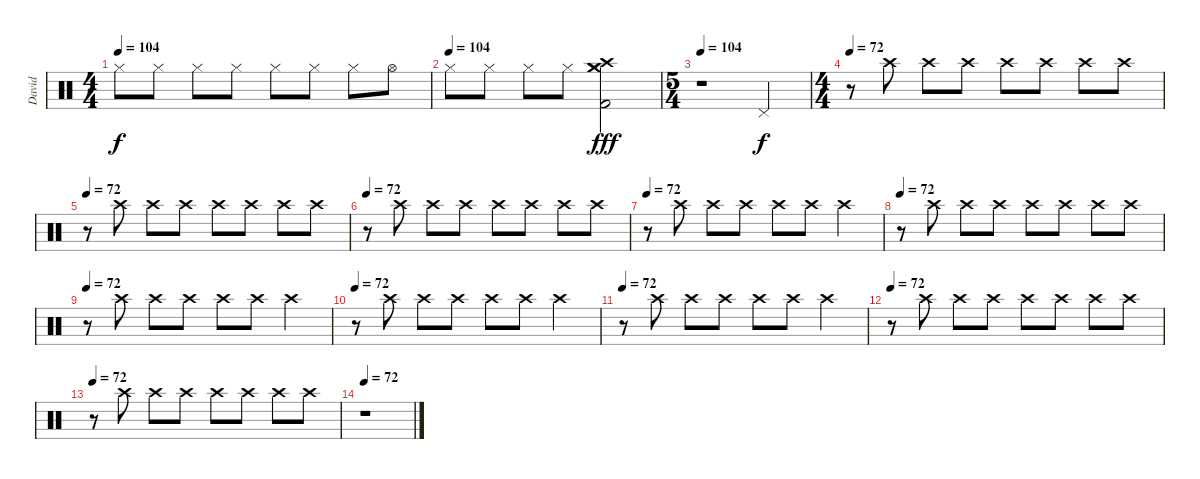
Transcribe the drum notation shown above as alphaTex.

\track ("David" "David") {instrument percussion}
\staff {score}
\articulation defaults
\ts (4 4)
\tempo 104
\clef neutral
\ks c "Hi-Hat (closed)".8{dy f} "Hi-Hat (closed)".8 "Hi-Hat (closed)".8 "Hi-Hat (closed)".8 "Hi-Hat (closed)".8 "Hi-Hat (closed)".8 "Hi-Hat (closed)".8 "Hi-Hat (open)".8
|
\tempo (104)
"Hi-Hat (closed)".8 "Hi-Hat (closed)".8 "Hi-Hat (closed)".8 "Hi-Hat (closed)".8 ("Crash medium (hit)" "Crash high (hit)" "Crash medium (hit)" "Kick (hit) 2").2{dy fff} |
\ts (5 4)
\tempo 104
r.1 "Pedal Hi-Hat (hit)".4{dy f} |
\ts (4 4)
\tempo 72
r.8 "Crash high (hit)".8 "Crash high (hit)".8 "Crash high (hit)".8 "Crash high (hit)".8 "Crash high (hit)".8 "Crash high (hit)".8 "Crash high (hit)".8 |
\tempo 72
r.8 "Crash high (hit)".8 "Crash high (hit)".8 "Crash high (hit)".8 "Crash high (hit)".8 "Crash high (hit)".8 "Crash high (hit)".8 "Crash high (hit)".8 |
\tempo 72
r.8 "Crash high (hit)".8 "Crash high (hit)".8 "Crash high (hit)".8 "Crash high (hit)".8 "Crash high (hit)".8 "Crash high (hit)".8 "Crash high (hit)".8 |
\tempo 72
r.8 "Crash high (hit)".8 "Crash high (hit)".8 "Crash high (hit)".8 "Crash high (hit)".8 "Crash high (hit)".8 "Crash high (hit)".4 |
\tempo 72
r.8 "Crash high (hit)".8 "Crash high (hit)".8 "Crash high (hit)".8 "Crash high (hit)".8 "Crash high (hit)".8 "Crash high (hit)".8 "Crash high (hit)".8 |
\tempo 72
r.8 "Crash high (hit)".8 "Crash high (hit)".8 "Crash high (hit)".8 "Crash high (hit)".8 "Crash high (hit)".8 "Crash high (hit)".4 |
\tempo 72
r.8 "Crash high (hit)".8 "Crash high (hit)".8 "Crash high (hit)".8 "Crash high (hit)".8 "Crash high (hit)".8 "Crash high (hit)".4 |
\tempo 72
r.8 "Crash high (hit)".8 "Crash high (hit)".8 "Crash high (hit)".8 "Crash high (hit)".8 "Crash high (hit)".8 "Crash high (hit)".4 |
\tempo 72
r.8 "Crash high (hit)".8 "Crash high (hit)".8 "Crash high (hit)".8 "Crash high (hit)".8 "Crash high (hit)".8 "Crash high (hit)".8 "Crash high (hit)".8 |
\tempo 72
r.8 "Crash high (hit)".8 "Crash high (hit)".8 "Crash high (hit)".8 "Crash high (hit)".8 "Crash high (hit)".8 "Crash high (hit)".8 "Crash high (hit)".8 |
\tempo 72
r.1
